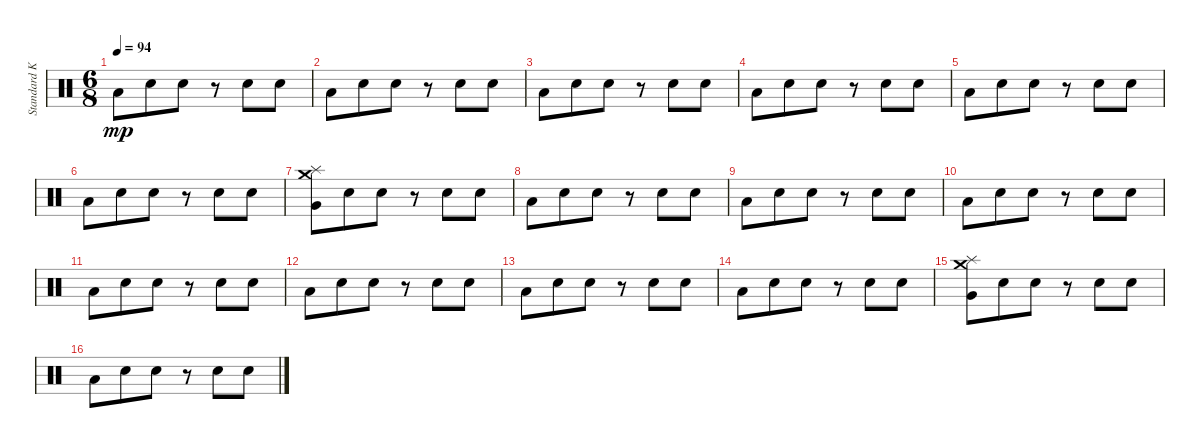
\track ("Standard Kit" "Standard K") {instrument percussion}
\staff {score}
\articulation defaults
\ts (6 8)
\tempo 94
\clef neutral
\ks c "Low Floor Tom (hit)".8{dy mp} "Electric Snare (hit)".8 "Electric Snare (hit)".8
r.8 "Electric Snare (hit)".8 "Electric Snare (hit)".8 |
"Low Floor Tom (hit)".8 "Electric Snare (hit)".8 "Electric Snare (hit)".8 r.8 "Electric Snare (hit)".8 "Electric Snare (hit)".8 |
"Low Floor Tom (hit)".8 "Electric Snare (hit)".8 "Electric Snare (hit)".8 r.8 "Electric Snare (hit)".8 "Electric Snare (hit)".8 |
"Low Floor Tom (hit)".8 "Electric Snare (hit)".8 "Electric Snare (hit)".8 r.8 "Electric Snare (hit)".8 "Electric Snare (hit)".8 |
"Low Floor Tom (hit)".8 "Electric Snare (hit)".8 "Electric Snare (hit)".8 r.8 "Electric Snare (hit)".8 "Electric Snare (hit)".8 |
"Low Floor Tom (hit)".8 "Electric Snare (hit)".8 "Electric Snare (hit)".8 r.8 "Electric Snare (hit)".8 "Electric Snare (hit)".8 |
("Very Low Tom (hit)" "Splash (hit)" "Crash medium (hit)").8 "Electric Snare (hit)".8 "Electric Snare (hit)".8 r.8 "Electric Snare (hit)".8 "Electric Snare (hit)".8 |
"Low Floor Tom (hit)".8 "Electric Snare (hit)".8 "Electric Snare (hit)".8 r.8 "Electric Snare (hit)".8 "Electric Snare (hit)".8 |
"Low Floor Tom (hit)".8 "Electric Snare (hit)".8 "Electric Snare (hit)".8 r.8 "Electric Snare (hit)".8 "Electric Snare (hit)".8 |
"Low Floor Tom (hit)".8 "Electric Snare (hit)".8 "Electric Snare (hit)".8 r.8 "Electric Snare (hit)".8 "Electric Snare (hit)".8 |
"Low Floor Tom (hit)".8 "Electric Snare (hit)".8 "Electric Snare (hit)".8 r.8 "Electric Snare (hit)".8 "Electric Snare (hit)".8 |
"Low Floor Tom (hit)".8 "Electric Snare (hit)".8 "Electric Snare (hit)".8 r.8 "Electric Snare (hit)".8 "Electric Snare (hit)".8 |
"Low Floor Tom (hit)".8 "Electric Snare (hit)".8 "Electric Snare (hit)".8 r.8 "Electric Snare (hit)".8 "Electric Snare (hit)".8 |
"Low Floor Tom (hit)".8 "Electric Snare (hit)".8 "Electric Snare (hit)".8 r.8 "Electric Snare (hit)".8 "Electric Snare (hit)".8 |
("Very Low Tom (hit)" "Splash (hit)" "Crash medium (hit)").8 "Electric Snare (hit)".8 "Electric Snare (hit)".8 r.8 "Electric Snare (hit)".8 "Electric Snare (hit)".8 |
"Low Floor Tom (hit)".8 "Electric Snare (hit)".8 "Electric Snare (hit)".8 r.8 "Electric Snare (hit)".8 "Electric Snare (hit)".8
